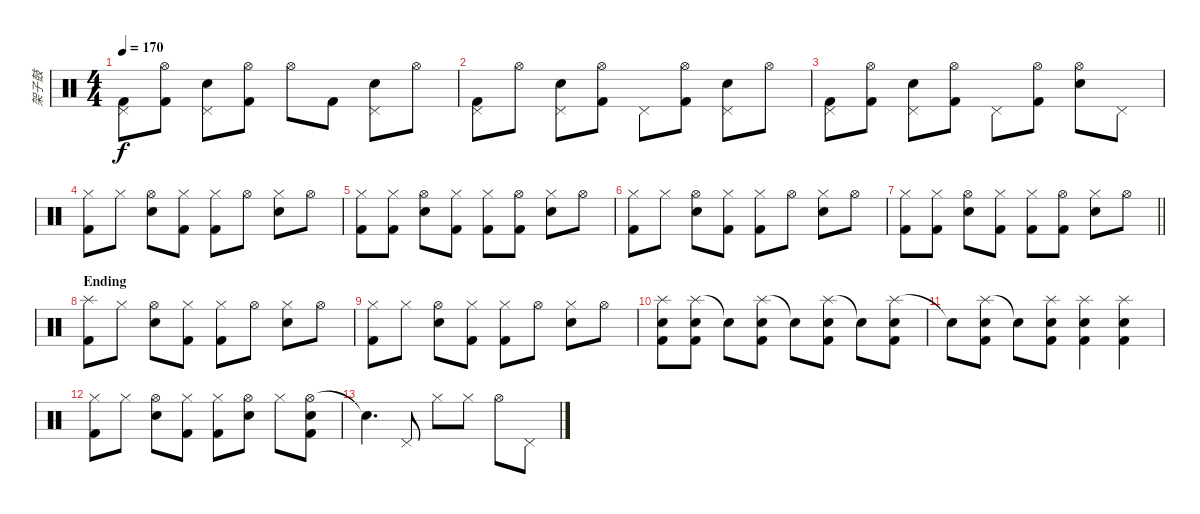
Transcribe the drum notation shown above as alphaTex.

\track ("架子鼓" "架子鼓") {instrument percussion}
\staff {score}
\articulation defaults
\ts (4 4)
\tempo 170
\clef neutral
\ks c
("Pedal Hi-Hat (hit)" "Kick (hit) 2").8{dy f} ("Hi-Hat (open)" "Kick (hit) 2").8 ("Snare (hit) 2" "Pedal Hi-Hat (hit)").8 ("Hi-Hat (open)" "Kick (hit) 2").8 "Hi-Hat (open)".8 "Kick (hit) 2".8 ("Snare (hit) 2" "Pedal Hi-Hat (hit)").8 "Hi-Hat (open)".8 |
("Pedal Hi-Hat (hit)" "Kick (hit) 2").8 "Hi-Hat (open)".8 ("Snare (hit) 2" "Pedal Hi-Hat (hit)").8 ("Hi-Hat (open)" "Kick (hit) 2").8 "Pedal Hi-Hat (hit)".8 ("Hi-Hat (open)" "Kick (hit) 2").8 ("Snare (hit) 2" "Pedal Hi-Hat (hit)").8 "Hi-Hat (open)".8 |
("Pedal Hi-Hat (hit)" "Kick (hit) 2").8 ("Hi-Hat (open)" "Kick (hit) 2").8 ("Snare (hit) 2" "Pedal Hi-Hat (hit)").8 ("Hi-Hat (open)" "Kick (hit) 2").8 "Pedal Hi-Hat (hit)".8 ("Hi-Hat (open)" "Kick (hit) 2").8 ("Hi-Hat (open)" "Snare (hit) 2").8 "Pedal Hi-Hat (hit)".8 |
("Hi-Hat (closed)" "Kick (hit) 2").8 "Hi-Hat (closed)".8 ("Hi-Hat (open)" "Snare (hit) 2").8 ("Hi-Hat (closed)" "Kick (hit) 2").8 ("Hi-Hat (closed)" "Kick (hit) 2").8 "Hi-Hat (open)".8 ("Hi-Hat (closed)" "Snare (hit) 2").8 "Hi-Hat (open)".8 |
("Hi-Hat (closed)" "Kick (hit) 2").8 ("Hi-Hat (closed)" "Kick (hit) 2").8 ("Hi-Hat (open)" "Snare (hit) 2").8 ("Hi-Hat (closed)" "Kick (hit) 2").8 ("Hi-Hat (closed)" "Kick (hit) 2").8 ("Hi-Hat (open)" "Kick (hit) 2").8 ("Hi-Hat (closed)" "Snare (hit) 2").8 "Hi-Hat (open)".8 |
("Hi-Hat (closed)" "Kick (hit) 2").8 "Hi-Hat (closed)".8 ("Hi-Hat (open)" "Snare (hit) 2").8 ("Hi-Hat (closed)" "Kick (hit) 2").8 ("Hi-Hat (closed)" "Kick (hit) 2").8 "Hi-Hat (open)".8 ("Hi-Hat (closed)" "Snare (hit) 2").8 "Hi-Hat (open)".8 |
\barLineRight lightlight
("Hi-Hat (closed)" "Kick (hit) 2").8 ("Hi-Hat (closed)" "Kick (hit) 2").8 ("Hi-Hat (open)" "Snare (hit) 2").8 ("Hi-Hat (closed)" "Kick (hit) 2").8 ("Hi-Hat (closed)" "Kick (hit) 2").8 ("Hi-Hat (open)" "Kick (hit) 2").8 ("Hi-Hat (closed)" "Snare (hit) 2").8 "Hi-Hat (open)".8 |
\section ("" "Ending")
("Splash (hit)" "Kick (hit) 2").8 "Hi-Hat (closed)".8 ("Hi-Hat (open)" "Snare (hit) 2").8 ("Hi-Hat (closed)" "Kick (hit) 2").8 ("Hi-Hat (closed)" "Kick (hit) 2").8 "Hi-Hat (open)".8 ("Hi-Hat (closed)" "Snare (hit) 2").8 "Hi-Hat (open)".8 |
("Hi-Hat (closed)" "Kick (hit) 2").8 "Hi-Hat (closed)".8 ("Hi-Hat (open)" "Snare (hit) 2").8 ("Hi-Hat (closed)" "Kick (hit) 2").8 ("Hi-Hat (closed)" "Kick (hit) 2").8 "Hi-Hat (open)".8 ("Hi-Hat (closed)" "Snare (hit) 2").8 "Hi-Hat (open)".8 |
("Splash (hit)" "Snare (hit) 2" "Kick (hit) 2").8 ("Splash (hit)" "Snare (hit) 2" "Kick (hit) 2").8 "Snare (hit)"{t}.8 ("Splash (hit)" "Snare (hit) 2" "Kick (hit) 2").8 "Snare (hit)"{t}.8 ("Splash (hit)" "Snare (hit) 2" "Kick (hit) 2").8 "Snare (hit)"{t}.8 ("Splash (hit)" "Snare (hit) 2" "Kick (hit) 2").8 |
"Snare (hit)"{t}.8 ("Splash (hit)" "Snare (hit) 2" "Kick (hit) 2").8 "Snare (hit)"{t}.8 ("Splash (hit)" "Snare (hit) 2" "Kick (hit) 2").8 ("Splash (hit)" "Snare (hit) 2" "Kick (hit) 2").4 ("Splash (hit)" "Snare (hit) 2" "Kick (hit) 2").4 |
("Hi-Hat (closed)" "Kick (hit) 2").8 "Hi-Hat (closed)".8 ("Hi-Hat (open)" "Snare (hit) 2").8 ("Hi-Hat (closed)" "Kick (hit) 2").8 ("Hi-Hat (closed)" "Kick (hit) 2").8 ("Hi-Hat (open)" "Snare (hit) 2").8 "Hi-Hat (closed)".8 ("Hi-Hat (open)" "Snare (hit) 2" "Kick (hit) 2").8 |
"Snare (hit)"{t}.4{d} "Pedal Hi-Hat (hit)".8 "Hi-Hat (closed)".8 "Hi-Hat (closed)".8 "Hi-Hat (open)".8 "Pedal Hi-Hat (hit)".8
